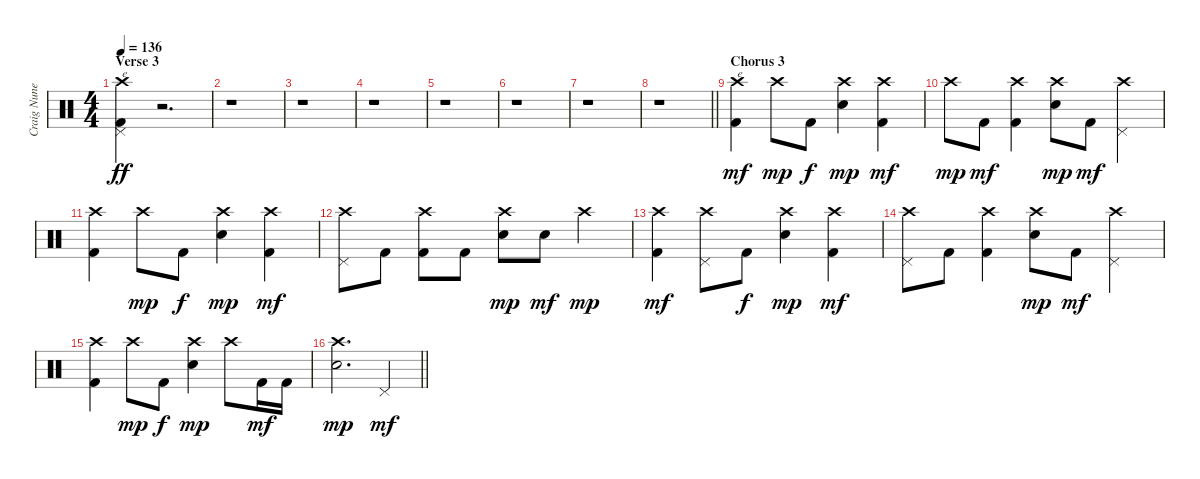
\track ("Craig Nunenmancher" "Craig Nune") {instrument percussion}
\staff {score}
\articulation defaults
\ts (4 4)
\section ("" "Verse 3")
\tempo 136
\clef neutral
\ks c
("Crash high (hit)" "Pedal Hi-Hat (hit)" "Kick (hit) 2").4{txt "e" dy ff} r.2{d} |
r.1 |
r.1 |
r.1 |
r.1 |
r.1 |
r.1 |
\barLineRight lightlight
r.1 |
\section ("" "Chorus 3")
("Crash high (hit)" "Kick (hit) 2").4{txt "e" dy mf} "Crash high (hit)".8{dy mp} "Kick (hit) 2".8{dy f} ("Crash high (hit)" "Snare (hit) 2").4{dy mp} ("Crash high (hit)" "Kick (hit) 2").4{dy mf} |
"Crash high (hit)".8{dy mp} "Kick (hit) 2".8{dy mf} ("Crash high (hit)" "Kick (hit) 2").4 ("Crash high (hit)" "Snare (hit) 2").8{dy mp} "Kick (hit) 2".8{dy mf} ("Crash high (hit)" "Pedal Hi-Hat (hit)").4 |
("Crash high (hit)" "Kick (hit) 2").4 "Crash high (hit)".8{dy mp} "Kick (hit) 2".8{dy f} ("Crash high (hit)" "Snare (hit) 2").4{dy mp} ("Crash high (hit)" "Kick (hit) 2").4{dy mf} |
("Crash high (hit)" "Pedal Hi-Hat (hit)").8 "Kick (hit) 2".8 ("Crash high (hit)" "Kick (hit) 2").8 "Kick (hit) 2".8 ("Crash high (hit)" "Snare (hit) 2").8{dy mp} "Snare (hit) 2".8{dy mf} "Crash high (hit)".4{dy mp} |
("Crash high (hit)" "Kick (hit) 2").4{dy mf} ("Crash high (hit)" "Pedal Hi-Hat (hit)").8 "Kick (hit) 2".8{dy f} ("Crash high (hit)" "Snare (hit) 2").4{dy mp} ("Crash high (hit)" "Kick (hit) 2").4{dy mf} |
("Crash high (hit)" "Pedal Hi-Hat (hit)").8 "Kick (hit) 2".8 ("Crash high (hit)" "Kick (hit) 2").4 ("Crash high (hit)" "Snare (hit) 2").8{dy mp} "Kick (hit) 2".8{dy mf} ("Crash high (hit)" "Pedal Hi-Hat (hit)").4 |
("Crash high (hit)" "Kick (hit) 2").4 "Crash high (hit)".8{dy mp} "Kick (hit) 2".8{dy f} ("Crash high (hit)" "Snare (hit) 2").4{dy mp} "Crash high (hit)".8 "Kick (hit) 2".16{dy mf} "Kick (hit) 2".16 |
\barLineRight lightlight
("Crash high (hit)" "Snare (hit) 2").2{d dy mp} "Pedal Hi-Hat (hit)".4{dy mf}
